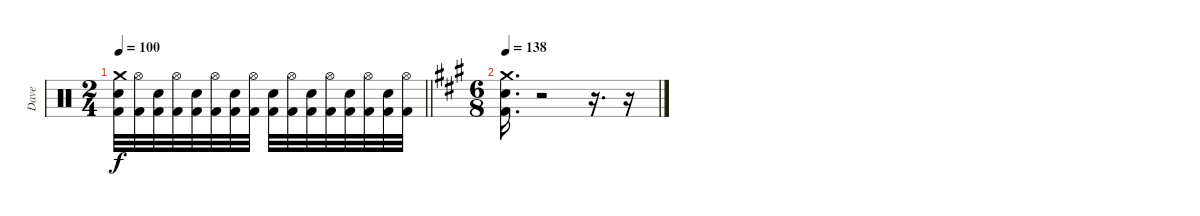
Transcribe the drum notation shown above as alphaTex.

\track ("Dave" "Dave") {instrument percussion}
\staff {score}
\articulation defaults
\ts (2 4)
\tempo 100
\clef neutral
\barLineRight lightlight
\ks c
("Crash medium (hit)" "Snare (hit) 2" "Kick (hit) 2").32{dy f} ("Hi-Hat (open)" "Kick (hit) 2").32 ("Snare (hit) 2" "Kick (hit) 2").32 ("Hi-Hat (open)" "Kick (hit) 2").32 ("Snare (hit) 2" "Kick (hit) 2").32 ("Hi-Hat (open)" "Kick (hit) 2").32 ("Snare (hit) 2" "Kick (hit) 2").32 ("Hi-Hat (open)" "Kick (hit) 2").32 ("Snare (hit) 2" "Kick (hit) 2").32 ("Hi-Hat (open)" "Kick (hit) 2").32 ("Snare (hit) 2" "Kick (hit) 2").32 ("Hi-Hat (open)" "Kick (hit) 2").32 ("Snare (hit) 2" "Kick (hit) 2").32 ("Hi-Hat (open)" "Kick (hit) 2").32 ("Snare (hit) 2" "Kick (hit) 2").32 ("Hi-Hat (open)" "Kick (hit) 2").32 |
\ts (6 8)
\tempo 138
\ks a
("Crash medium (hit)" "Snare (hit) 2" "Kick (hit) 2").16{d} r.2 r.16{d} r.16
